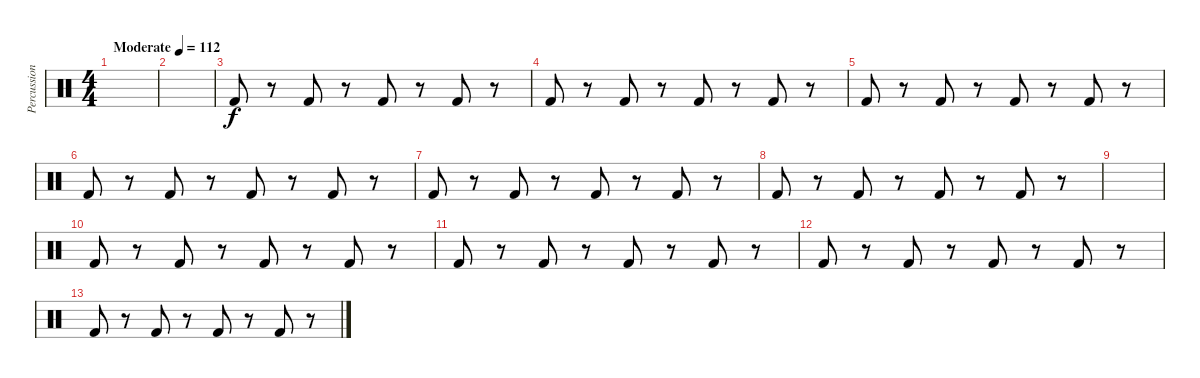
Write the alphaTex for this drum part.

\track ("Percussion" "Percussion") {instrument percussion}
\staff {score}
\articulation defaults
\ts (4 4)
\tempo (112 "Moderate")
\clef neutral
\ks c
|
|
"Kick (hit) 2".8 r.8 "Kick (hit) 2".8 r.8 "Kick (hit) 2".8 r.8 "Kick (hit) 2".8 r.8 |
"Kick (hit) 2".8 r.8 "Kick (hit) 2".8 r.8 "Kick (hit) 2".8 r.8 "Kick (hit) 2".8 r.8 |
"Kick (hit) 2".8 r.8 "Kick (hit) 2".8 r.8 "Kick (hit) 2".8 r.8 "Kick (hit) 2".8 r.8 |
"Kick (hit) 2".8 r.8 "Kick (hit) 2".8 r.8 "Kick (hit) 2".8 r.8 "Kick (hit) 2".8 r.8 |
"Kick (hit) 2".8 r.8 "Kick (hit) 2".8 r.8 "Kick (hit) 2".8 r.8 "Kick (hit) 2".8 r.8 |
"Kick (hit) 2".8 r.8 "Kick (hit) 2".8 r.8 "Kick (hit) 2".8 r.8 "Kick (hit) 2".8 r.8 |
|
"Kick (hit) 2".8 r.8 "Kick (hit) 2".8 r.8 "Kick (hit) 2".8 r.8 "Kick (hit) 2".8 r.8 |
"Kick (hit) 2".8 r.8 "Kick (hit) 2".8 r.8 "Kick (hit) 2".8 r.8 "Kick (hit) 2".8 r.8 |
"Kick (hit) 2".8 r.8 "Kick (hit) 2".8 r.8 "Kick (hit) 2".8 r.8 "Kick (hit) 2".8 r.8 |
"Kick (hit) 2".8 r.8 "Kick (hit) 2".8 r.8 "Kick (hit) 2".8 r.8 "Kick (hit) 2".8 r.8
